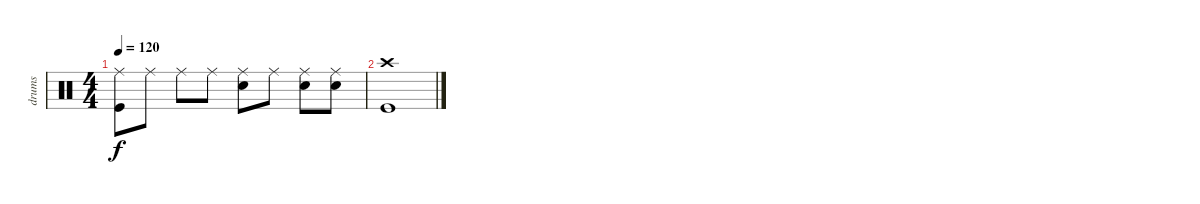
\track ("drums" "drums") {instrument percussion}
\staff {score}
\articulation defaults
\ts (4 4)
\tempo 120
\clef neutral
\ks c
("Ride (middle)" "Kick (hit)").8{dy f} "Ride (middle)".8 "Ride (middle)".8 "Ride (middle)".8 ("Ride (middle)" "Electric Snare (hit)").8 "Ride (middle)".8 ("Ride (middle)" "Electric Snare (hit)").8 ("Ride (middle)" "Electric Snare (hit)").8 |
("Crash high (hit)" "Kick (hit)").1
